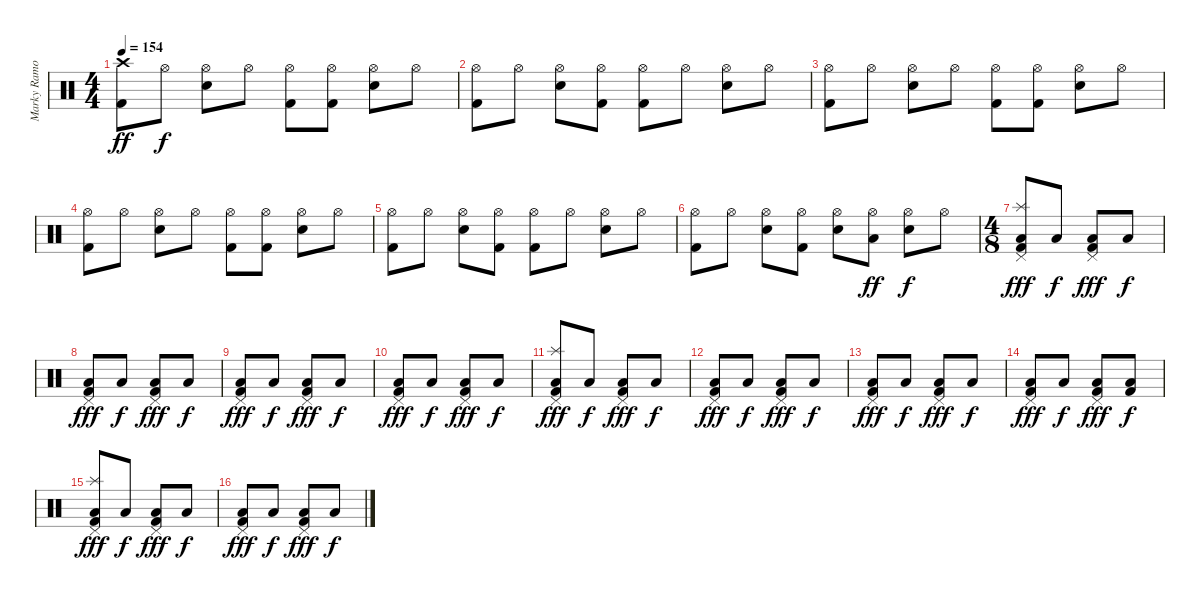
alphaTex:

\track ("Marky Ramone - Drums" "Marky Ramo") {instrument percussion}
\staff {score}
\articulation defaults
\ts (4 4)
\tempo 154
\clef neutral
\ks c
("Kick (hit) 2" "Crash high (hit)").8{dy ff} "Hi-Hat (open)".8{dy f} ("Snare (hit) 2" "Hi-Hat (open)").8 "Hi-Hat (open)".8 ("Kick (hit) 2" "Hi-Hat (open)").8 ("Kick (hit) 2" "Hi-Hat (open)").8 ("Snare (hit) 2" "Hi-Hat (open)").8 "Hi-Hat (open)".8 |
("Kick (hit) 2" "Hi-Hat (open)").8 "Hi-Hat (open)".8 ("Snare (hit) 2" "Hi-Hat (open)").8 ("Kick (hit) 2" "Hi-Hat (open)").8 ("Kick (hit) 2" "Hi-Hat (open)").8 "Hi-Hat (open)".8 ("Snare (hit) 2" "Hi-Hat (open)").8 "Hi-Hat (open)".8 |
("Kick (hit) 2" "Hi-Hat (open)").8 "Hi-Hat (open)".8 ("Snare (hit) 2" "Hi-Hat (open)").8 "Hi-Hat (open)".8 ("Kick (hit) 2" "Hi-Hat (open)").8 ("Kick (hit) 2" "Hi-Hat (open)").8 ("Snare (hit) 2" "Hi-Hat (open)").8 "Hi-Hat (open)".8 |
("Kick (hit) 2" "Hi-Hat (open)").8 "Hi-Hat (open)".8 ("Snare (hit) 2" "Hi-Hat (open)").8 "Hi-Hat (open)".8 ("Kick (hit) 2" "Hi-Hat (open)").8 ("Kick (hit) 2" "Hi-Hat (open)").8 ("Snare (hit) 2" "Hi-Hat (open)").8 "Hi-Hat (open)".8 |
("Kick (hit) 2" "Hi-Hat (open)").8 "Hi-Hat (open)".8 ("Snare (hit) 2" "Hi-Hat (open)").8 ("Kick (hit) 2" "Hi-Hat (open)").8 ("Kick (hit) 2" "Hi-Hat (open)").8 "Hi-Hat (open)".8 ("Snare (hit) 2" "Hi-Hat (open)").8 "Hi-Hat (open)".8 |
("Kick (hit) 2" "Hi-Hat (open)").8 "Hi-Hat (open)".8 ("Snare (hit) 2" "Hi-Hat (open)").8 ("Kick (hit) 2" "Hi-Hat (open)").8 ("Snare (hit) 2" "Hi-Hat (open)").8 ("Low Floor Tom (hit)" "Hi-Hat (open)").8{dy ff} ("Snare (hit) 2" "Hi-Hat (open)").8{dy f} "Hi-Hat (open)".8 |
\ts (4 8)
("Low Floor Tom (hit)" "Splash (hit)" "Pedal Hi-Hat (hit)" "Kick (hit) 2").8{dy fff} "Low Floor Tom (hit)".8{dy f} ("Low Floor Tom (hit)" "Pedal Hi-Hat (hit)" "Kick (hit) 2").8{dy fff} "Low Floor Tom (hit)".8{dy f} |
("Low Floor Tom (hit)" "Pedal Hi-Hat (hit)" "Kick (hit) 2").8{dy fff} "Low Floor Tom (hit)".8{dy f} ("Low Floor Tom (hit)" "Pedal Hi-Hat (hit)" "Kick (hit) 2").8{dy fff} "Low Floor Tom (hit)".8{dy f} |
("Low Floor Tom (hit)" "Pedal Hi-Hat (hit)" "Kick (hit) 2").8{dy fff} "Low Floor Tom (hit)".8{dy f} ("Low Floor Tom (hit)" "Pedal Hi-Hat (hit)" "Kick (hit) 2").8{dy fff} "Low Floor Tom (hit)".8{dy f} |
("Low Floor Tom (hit)" "Pedal Hi-Hat (hit)" "Kick (hit) 2").8{dy fff} "Low Floor Tom (hit)".8{dy f} ("Low Floor Tom (hit)" "Pedal Hi-Hat (hit)" "Kick (hit) 2").8{dy fff} "Low Floor Tom (hit)".8{dy f} |
("Low Floor Tom (hit)" "Splash (hit)" "Pedal Hi-Hat (hit)" "Kick (hit) 2").8{dy fff} "Low Floor Tom (hit)".8{dy f} ("Low Floor Tom (hit)" "Pedal Hi-Hat (hit)" "Kick (hit) 2").8{dy fff} "Low Floor Tom (hit)".8{dy f} |
("Low Floor Tom (hit)" "Pedal Hi-Hat (hit)" "Kick (hit) 2").8{dy fff} "Low Floor Tom (hit)".8{dy f} ("Low Floor Tom (hit)" "Pedal Hi-Hat (hit)" "Kick (hit) 2").8{dy fff} "Low Floor Tom (hit)".8{dy f} |
("Low Floor Tom (hit)" "Pedal Hi-Hat (hit)" "Kick (hit) 2").8{dy fff} "Low Floor Tom (hit)".8{dy f} ("Low Floor Tom (hit)" "Pedal Hi-Hat (hit)" "Kick (hit) 2").8{dy fff} "Low Floor Tom (hit)".8{dy f} |
("Low Floor Tom (hit)" "Pedal Hi-Hat (hit)" "Kick (hit) 2").8{dy fff} "Low Floor Tom (hit)".8{dy f} ("Low Floor Tom (hit)" "Pedal Hi-Hat (hit)" "Kick (hit) 2").8{dy fff} ("Low Floor Tom (hit)" "Kick (hit) 2").8{dy f} |
("Low Floor Tom (hit)" "Splash (hit)" "Pedal Hi-Hat (hit)" "Kick (hit) 2").8{dy fff} "Low Floor Tom (hit)".8{dy f} ("Low Floor Tom (hit)" "Pedal Hi-Hat (hit)" "Kick (hit) 2").8{dy fff} "Low Floor Tom (hit)".8{dy f} |
("Low Floor Tom (hit)" "Pedal Hi-Hat (hit)" "Kick (hit) 2").8{dy fff} "Low Floor Tom (hit)".8{dy f} ("Low Floor Tom (hit)" "Pedal Hi-Hat (hit)" "Kick (hit) 2").8{dy fff} "Low Floor Tom (hit)".8{dy f}
